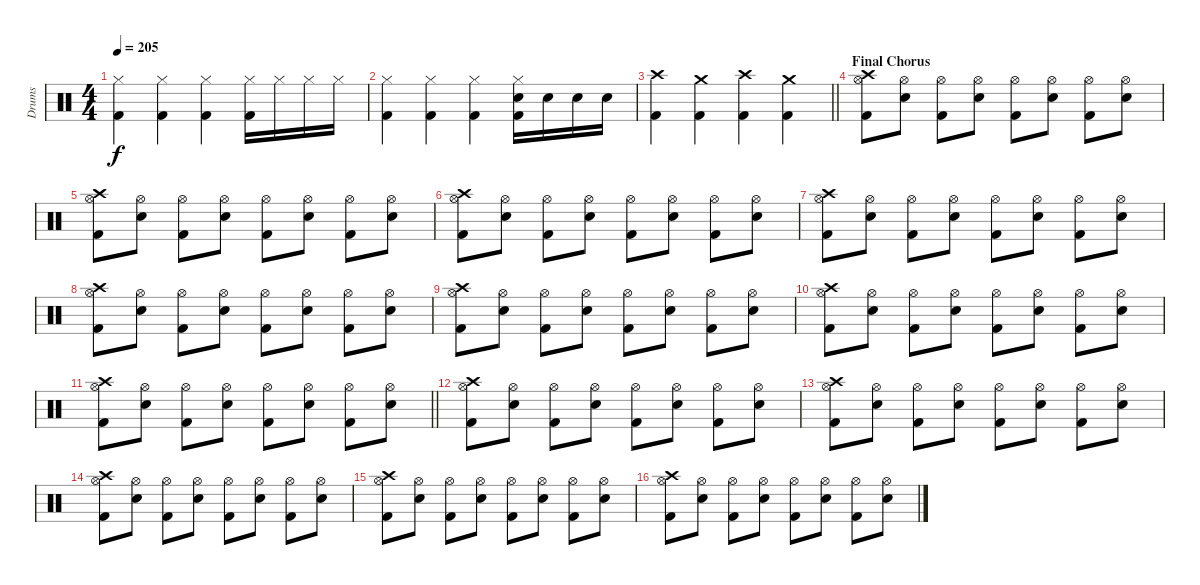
\track ("Drums" "Drums") {instrument percussion}
\staff {score}
\articulation defaults
\ts (4 4)
\tempo 205
\clef neutral
\ks c
("Hi-Hat (closed)" "Kick (hit) 2").4{dy f} ("Hi-Hat (closed)" "Kick (hit) 2").4 ("Hi-Hat (closed)" "Kick (hit) 2").4 ("Hi-Hat (closed)" "Kick (hit) 2").16 "Hi-Hat (closed)".16 "Hi-Hat (closed)".16 "Hi-Hat (closed)".16 |
("Hi-Hat (closed)" "Kick (hit) 2").4 ("Hi-Hat (closed)" "Kick (hit) 2").4 ("Hi-Hat (closed)" "Kick (hit) 2").4 ("Hi-Hat (closed)" "Snare (hit) 2" "Kick (hit) 2").16 "Snare (hit) 2".16 "Snare (hit) 2".16 "Snare (hit) 2".16 |
\barLineRight lightlight
("Crash high (hit)" "Kick (hit) 2").4 ("Crash medium (hit)" "Kick (hit) 2").4 ("Crash high (hit)" "Kick (hit) 2").4 ("Crash medium (hit)" "Kick (hit) 2").4 |
\section ("" "Final Chorus")
("Crash high (hit)" "Hi-Hat (open)" "Kick (hit) 2").8 ("Hi-Hat (open)" "Snare (hit) 2").8 ("Hi-Hat (open)" "Kick (hit) 2").8 ("Hi-Hat (open)" "Snare (hit) 2").8 ("Hi-Hat (open)" "Kick (hit) 2").8 ("Hi-Hat (open)" "Snare (hit) 2").8 ("Hi-Hat (open)" "Kick (hit) 2").8 ("Hi-Hat (open)" "Snare (hit) 2").8 |
("Crash high (hit)" "Hi-Hat (open)" "Kick (hit) 2").8 ("Hi-Hat (open)" "Snare (hit) 2").8 ("Hi-Hat (open)" "Kick (hit) 2").8 ("Hi-Hat (open)" "Snare (hit) 2").8 ("Hi-Hat (open)" "Kick (hit) 2").8 ("Hi-Hat (open)" "Snare (hit) 2").8 ("Hi-Hat (open)" "Kick (hit) 2").8 ("Hi-Hat (open)" "Snare (hit) 2").8 |
("Crash high (hit)" "Hi-Hat (open)" "Kick (hit) 2").8 ("Hi-Hat (open)" "Snare (hit) 2").8 ("Hi-Hat (open)" "Kick (hit) 2").8 ("Hi-Hat (open)" "Snare (hit) 2").8 ("Hi-Hat (open)" "Kick (hit) 2").8 ("Hi-Hat (open)" "Snare (hit) 2").8 ("Hi-Hat (open)" "Kick (hit) 2").8 ("Hi-Hat (open)" "Snare (hit) 2").8 |
("Crash high (hit)" "Hi-Hat (open)" "Kick (hit) 2").8 ("Hi-Hat (open)" "Snare (hit) 2").8 ("Hi-Hat (open)" "Kick (hit) 2").8 ("Hi-Hat (open)" "Snare (hit) 2").8 ("Hi-Hat (open)" "Kick (hit) 2").8 ("Hi-Hat (open)" "Snare (hit) 2").8 ("Hi-Hat (open)" "Kick (hit) 2").8 ("Hi-Hat (open)" "Snare (hit) 2").8 |
("Crash high (hit)" "Hi-Hat (open)" "Kick (hit) 2").8 ("Hi-Hat (open)" "Snare (hit) 2").8 ("Hi-Hat (open)" "Kick (hit) 2").8 ("Hi-Hat (open)" "Snare (hit) 2").8 ("Hi-Hat (open)" "Kick (hit) 2").8 ("Hi-Hat (open)" "Snare (hit) 2").8 ("Hi-Hat (open)" "Kick (hit) 2").8 ("Hi-Hat (open)" "Snare (hit) 2").8 |
("Crash high (hit)" "Hi-Hat (open)" "Kick (hit) 2").8 ("Hi-Hat (open)" "Snare (hit) 2").8 ("Hi-Hat (open)" "Kick (hit) 2").8 ("Hi-Hat (open)" "Snare (hit) 2").8 ("Hi-Hat (open)" "Kick (hit) 2").8 ("Hi-Hat (open)" "Snare (hit) 2").8 ("Hi-Hat (open)" "Kick (hit) 2").8 ("Hi-Hat (open)" "Snare (hit) 2").8 |
("Crash high (hit)" "Hi-Hat (open)" "Kick (hit) 2").8 ("Hi-Hat (open)" "Snare (hit) 2").8 ("Hi-Hat (open)" "Kick (hit) 2").8 ("Hi-Hat (open)" "Snare (hit) 2").8 ("Hi-Hat (open)" "Kick (hit) 2").8 ("Hi-Hat (open)" "Snare (hit) 2").8 ("Hi-Hat (open)" "Kick (hit) 2").8 ("Hi-Hat (open)" "Snare (hit) 2").8 |
\barLineRight lightlight
("Crash high (hit)" "Hi-Hat (open)" "Kick (hit) 2").8 ("Hi-Hat (open)" "Snare (hit) 2").8 ("Hi-Hat (open)" "Kick (hit) 2").8 ("Hi-Hat (open)" "Snare (hit) 2").8 ("Hi-Hat (open)" "Kick (hit) 2").8 ("Hi-Hat (open)" "Snare (hit) 2").8 ("Hi-Hat (open)" "Kick (hit) 2").8 ("Hi-Hat (open)" "Snare (hit) 2").8 |
("Crash high (hit)" "Hi-Hat (open)" "Kick (hit) 2").8 ("Hi-Hat (open)" "Snare (hit) 2").8 ("Hi-Hat (open)" "Kick (hit) 2").8 ("Hi-Hat (open)" "Snare (hit) 2").8 ("Hi-Hat (open)" "Kick (hit) 2").8 ("Hi-Hat (open)" "Snare (hit) 2").8 ("Hi-Hat (open)" "Kick (hit) 2").8 ("Hi-Hat (open)" "Snare (hit) 2").8 |
("Crash high (hit)" "Hi-Hat (open)" "Kick (hit) 2").8 ("Hi-Hat (open)" "Snare (hit) 2").8 ("Hi-Hat (open)" "Kick (hit) 2").8 ("Hi-Hat (open)" "Snare (hit) 2").8 ("Hi-Hat (open)" "Kick (hit) 2").8 ("Hi-Hat (open)" "Snare (hit) 2").8 ("Hi-Hat (open)" "Kick (hit) 2").8 ("Hi-Hat (open)" "Snare (hit) 2").8 |
("Crash high (hit)" "Hi-Hat (open)" "Kick (hit) 2").8 ("Hi-Hat (open)" "Snare (hit) 2").8 ("Hi-Hat (open)" "Kick (hit) 2").8 ("Hi-Hat (open)" "Snare (hit) 2").8 ("Hi-Hat (open)" "Kick (hit) 2").8 ("Hi-Hat (open)" "Snare (hit) 2").8 ("Hi-Hat (open)" "Kick (hit) 2").8 ("Hi-Hat (open)" "Snare (hit) 2").8 |
("Crash high (hit)" "Hi-Hat (open)" "Kick (hit) 2").8 ("Hi-Hat (open)" "Snare (hit) 2").8 ("Hi-Hat (open)" "Kick (hit) 2").8 ("Hi-Hat (open)" "Snare (hit) 2").8 ("Hi-Hat (open)" "Kick (hit) 2").8 ("Hi-Hat (open)" "Snare (hit) 2").8 ("Hi-Hat (open)" "Kick (hit) 2").8 ("Hi-Hat (open)" "Snare (hit) 2").8 |
("Crash high (hit)" "Hi-Hat (open)" "Kick (hit) 2").8 ("Hi-Hat (open)" "Snare (hit) 2").8 ("Hi-Hat (open)" "Kick (hit) 2").8 ("Hi-Hat (open)" "Snare (hit) 2").8 ("Hi-Hat (open)" "Kick (hit) 2").8 ("Hi-Hat (open)" "Snare (hit) 2").8 ("Hi-Hat (open)" "Kick (hit) 2").8 ("Hi-Hat (open)" "Snare (hit) 2").8
